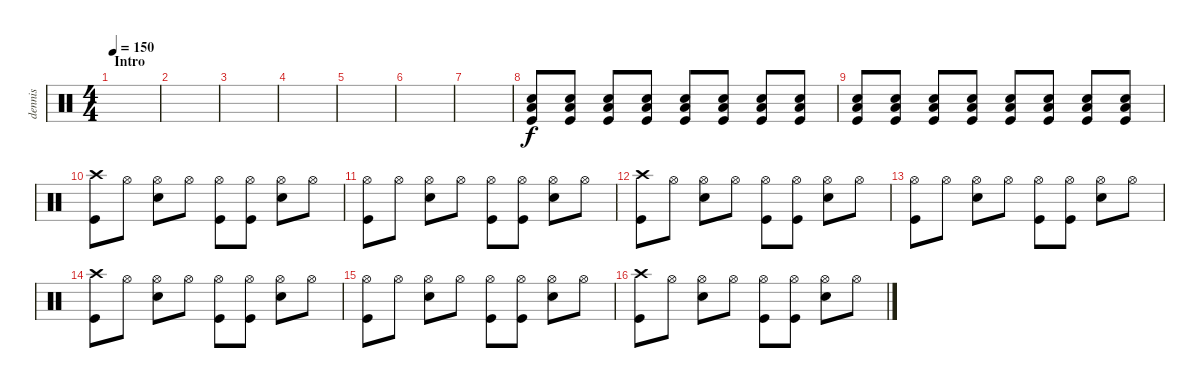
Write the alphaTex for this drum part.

\track ("dennis" "dennis") {instrument percussion}
\staff {score}
\articulation defaults
\ts (4 4)
\section ("" "Intro")
\tempo 150
\clef neutral
\ks c
|
|
|
|
|
|
|
("Kick (hit)" "Low Floor Tom (hit)" "Electric Snare (hit)").8 ("Kick (hit)" "Low Floor Tom (hit)" "Electric Snare (hit)").8 ("Kick (hit)" "Low Floor Tom (hit)" "Electric Snare (hit)").8 ("Kick (hit)" "Low Floor Tom (hit)" "Electric Snare (hit)").8 ("Kick (hit)" "Low Floor Tom (hit)" "Electric Snare (hit)").8 ("Kick (hit)" "Low Floor Tom (hit)" "Electric Snare (hit)").8 ("Kick (hit)" "Low Floor Tom (hit)" "Electric Snare (hit)").8 ("Kick (hit)" "Low Floor Tom (hit)" "Electric Snare (hit)").8 |
("Kick (hit)" "Low Floor Tom (hit)" "Electric Snare (hit)").8 ("Kick (hit)" "Low Floor Tom (hit)" "Electric Snare (hit)").8 ("Kick (hit)" "Low Floor Tom (hit)" "Electric Snare (hit)").8 ("Kick (hit)" "Low Floor Tom (hit)" "Electric Snare (hit)").8 ("Kick (hit)" "Low Floor Tom (hit)" "Electric Snare (hit)").8 ("Kick (hit)" "Low Floor Tom (hit)" "Electric Snare (hit)").8 ("Kick (hit)" "Low Floor Tom (hit)" "Electric Snare (hit)").8 ("Kick (hit)" "Low Floor Tom (hit)" "Electric Snare (hit)").8 |
("Crash high (hit)" "Kick (hit)").8 "Hi-Hat (open)".8 ("Hi-Hat (open)" "Electric Snare (hit)").8 "Hi-Hat (open)".8 ("Hi-Hat (open)" "Kick (hit)").8 ("Hi-Hat (open)" "Kick (hit)").8 ("Hi-Hat (open)" "Electric Snare (hit)").8 "Hi-Hat (open)".8 |
("Hi-Hat (open)" "Kick (hit)").8 "Hi-Hat (open)".8 ("Hi-Hat (open)" "Electric Snare (hit)").8 "Hi-Hat (open)".8 ("Hi-Hat (open)" "Kick (hit)").8 ("Hi-Hat (open)" "Kick (hit)").8 ("Hi-Hat (open)" "Electric Snare (hit)").8 "Hi-Hat (open)".8 |
("Crash high (hit)" "Kick (hit)").8 "Hi-Hat (open)".8 ("Hi-Hat (open)" "Electric Snare (hit)").8 "Hi-Hat (open)".8 ("Hi-Hat (open)" "Kick (hit)").8 ("Hi-Hat (open)" "Kick (hit)").8 ("Hi-Hat (open)" "Electric Snare (hit)").8 "Hi-Hat (open)".8 |
("Hi-Hat (open)" "Kick (hit)").8 "Hi-Hat (open)".8 ("Hi-Hat (open)" "Electric Snare (hit)").8 "Hi-Hat (open)".8 ("Hi-Hat (open)" "Kick (hit)").8 ("Hi-Hat (open)" "Kick (hit)").8 ("Hi-Hat (open)" "Electric Snare (hit)").8 "Hi-Hat (open)".8 |
("Crash high (hit)" "Kick (hit)").8 "Hi-Hat (open)".8 ("Hi-Hat (open)" "Electric Snare (hit)").8 "Hi-Hat (open)".8 ("Hi-Hat (open)" "Kick (hit)").8 ("Hi-Hat (open)" "Kick (hit)").8 ("Hi-Hat (open)" "Electric Snare (hit)").8 "Hi-Hat (open)".8 |
("Hi-Hat (open)" "Kick (hit)").8 "Hi-Hat (open)".8 ("Hi-Hat (open)" "Electric Snare (hit)").8 "Hi-Hat (open)".8 ("Hi-Hat (open)" "Kick (hit)").8 ("Hi-Hat (open)" "Kick (hit)").8 ("Hi-Hat (open)" "Electric Snare (hit)").8 "Hi-Hat (open)".8 |
("Crash high (hit)" "Kick (hit)").8 "Hi-Hat (open)".8 ("Hi-Hat (open)" "Electric Snare (hit)").8 "Hi-Hat (open)".8 ("Hi-Hat (open)" "Kick (hit)").8 ("Hi-Hat (open)" "Kick (hit)").8 ("Hi-Hat (open)" "Electric Snare (hit)").8 "Hi-Hat (open)".8
